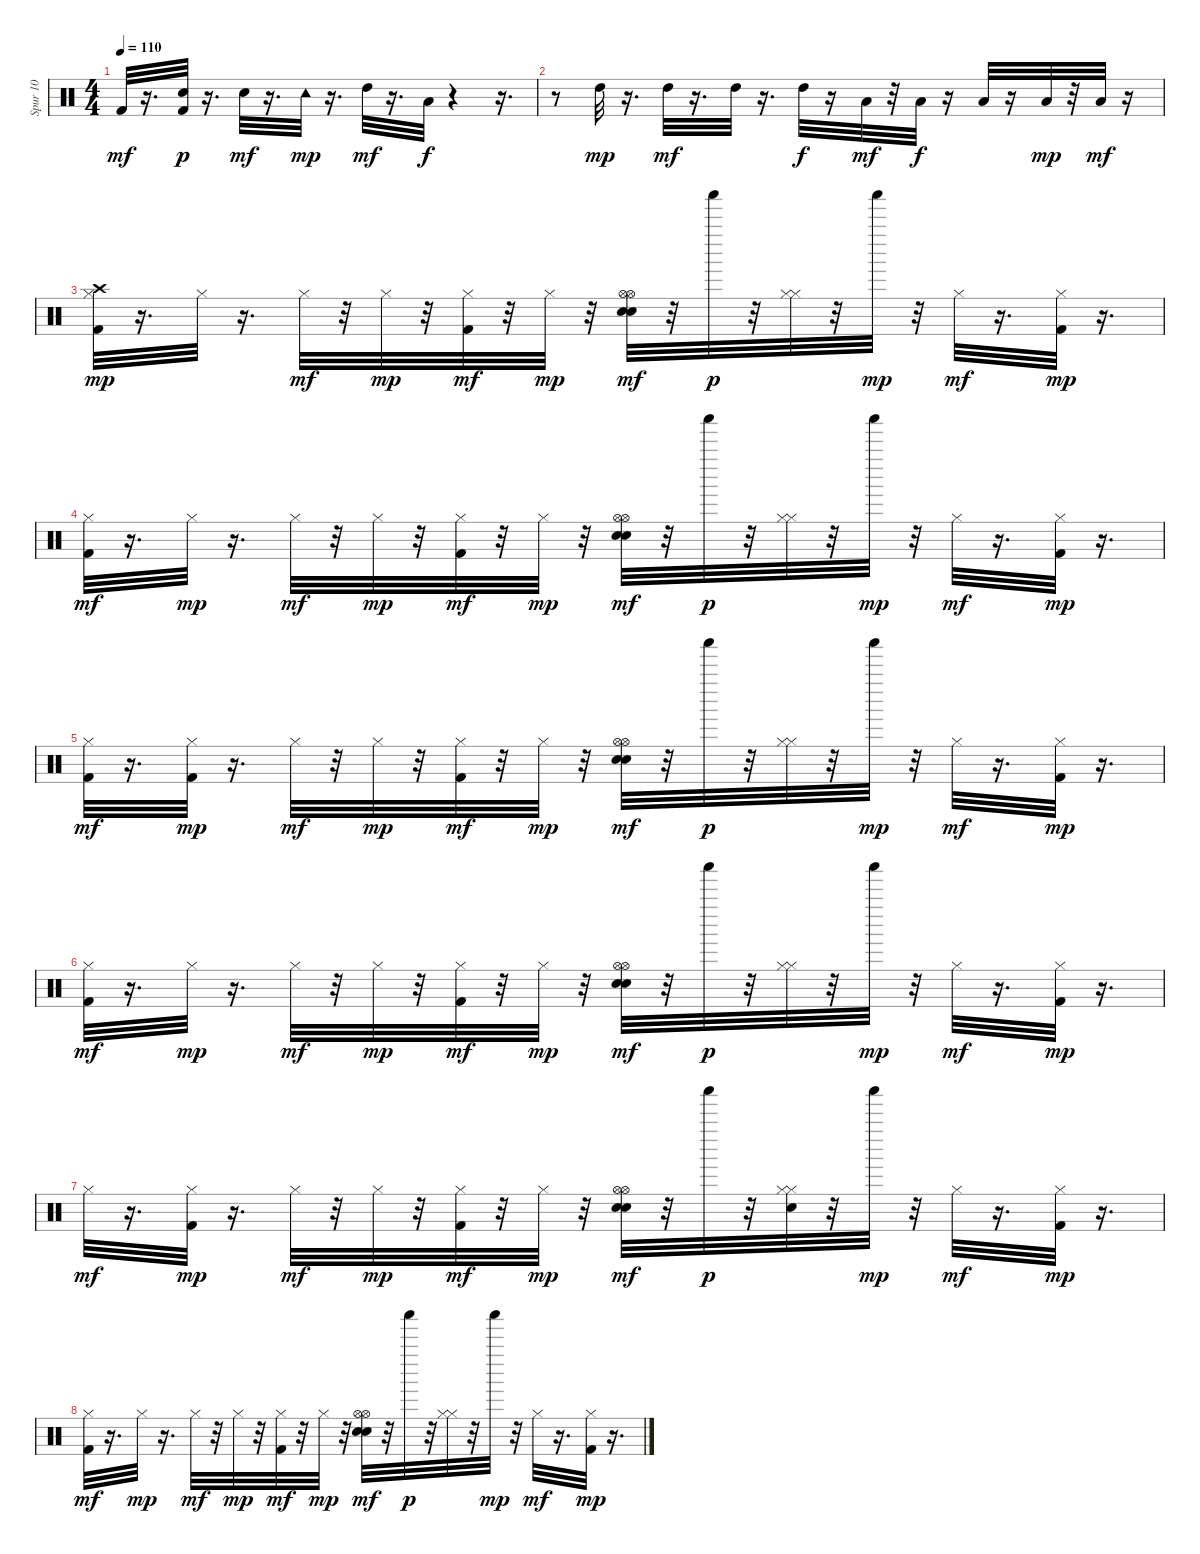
\track ("Spur 10" "Spur 10") {instrument percussion}
\staff {score}
\articulation defaults
\ts (4 4)
\tempo 110
\clef neutral
\ks c "Kick (hit) 2".32{dy mf}
r.16{d} ("Kick (hit) 2" "Snare (hit) 2").32{dy p} r.16{d} "Snare (hit) 2".32{dy mf} r.16{d} "Tambourine (hit)".32{dy mp} r.16{d} "High Tom (hit)".32{dy mf} r.16{d} "Low Tom (hit)".32{dy f} r.4 r.16{d} |
r.8 "High Tom (hit)".32{dy mp} r.16{d} "High Tom (hit)".32{dy mf} r.16{d} "High Tom (hit)".32 r.16{d} "High Tom (hit)".32{dy f} r.16 "Low Tom (hit)".32{dy mf} r.32 "Low Tom (hit)".32{dy f} r.16 "Low Tom (hit)".32 r.16 "Low Floor Tom (hit)".32{dy mp} r.32 "Low Floor Tom (hit)".32{dy mf} r.16 |
("Kick (hit) 2" "Hi-Hat (closed)" "Crash high (hit)").32{dy mp} r.16{d} "Hi-Hat (closed)".32 r.16{d} "Hi-Hat (closed)".32{dy mf} r.32 "Hi-Hat (closed)".32{dy mp} r.32 ("Kick (hit) 2" "Hi-Hat (closed)").32{dy mf} r.32 "Hi-Hat (closed)".32{dy mp} r.32 ("Hi-Hat (open)" "Snare (hit) 2" "Electric Snare (hit)" "Hi-Hat (open)").32{dy mf} r.32 "Shaker (hit)".32{dy p} r.32 ("Hi-Hat (closed)" "Hi-Hat (closed)").32 r.32 "Shaker (hit)".32{dy mp} r.32 "Hi-Hat (closed)".32{dy mf} r.16{d} ("Kick (hit) 2" "Hi-Hat (closed)").32{dy mp} r.16{d} |
("Kick (hit) 2" "Hi-Hat (closed)").32{dy mf} r.16{d} "Hi-Hat (closed)".32{dy mp} r.16{d} "Hi-Hat (closed)".32{dy mf} r.32 "Hi-Hat (closed)".32{dy mp} r.32 ("Kick (hit) 2" "Hi-Hat (closed)").32{dy mf} r.32 "Hi-Hat (closed)".32{dy mp} r.32 ("Hi-Hat (open)" "Snare (hit) 2" "Electric Snare (hit)" "Hi-Hat (open)").32{dy mf} r.32 "Shaker (hit)".32{dy p} r.32 ("Hi-Hat (closed)" "Hi-Hat (closed)").32 r.32 "Shaker (hit)".32{dy mp} r.32 "Hi-Hat (closed)".32{dy mf} r.16{d} ("Kick (hit) 2" "Hi-Hat (closed)").32{dy mp} r.16{d} |
("Kick (hit) 2" "Hi-Hat (closed)").32{dy mf} r.16{d} ("Kick (hit) 2" "Hi-Hat (closed)").32{dy mp} r.16{d} "Hi-Hat (closed)".32{dy mf} r.32 "Hi-Hat (closed)".32{dy mp} r.32 ("Kick (hit) 2" "Hi-Hat (closed)").32{dy mf} r.32 "Hi-Hat (closed)".32{dy mp} r.32 ("Hi-Hat (open)" "Snare (hit) 2" "Electric Snare (hit)" "Hi-Hat (open)").32{dy mf} r.32 "Shaker (hit)".32{dy p} r.32 ("Hi-Hat (closed)" "Hi-Hat (closed)").32 r.32 "Shaker (hit)".32{dy mp} r.32 "Hi-Hat (closed)".32{dy mf} r.16{d} ("Kick (hit) 2" "Hi-Hat (closed)").32{dy mp} r.16{d} |
("Kick (hit) 2" "Hi-Hat (closed)").32{dy mf} r.16{d} "Hi-Hat (closed)".32{dy mp} r.16{d} "Hi-Hat (closed)".32{dy mf} r.32 "Hi-Hat (closed)".32{dy mp} r.32 ("Kick (hit) 2" "Hi-Hat (closed)").32{dy mf} r.32 "Hi-Hat (closed)".32{dy mp} r.32 ("Hi-Hat (open)" "Snare (hit) 2" "Electric Snare (hit)" "Hi-Hat (open)").32{dy mf} r.32 "Shaker (hit)".32{dy p} r.32 ("Hi-Hat (closed)" "Hi-Hat (closed)").32 r.32 "Shaker (hit)".32{dy mp} r.32 "Hi-Hat (closed)".32{dy mf} r.16{d} ("Kick (hit) 2" "Hi-Hat (closed)").32{dy mp} r.16{d} |
"Hi-Hat (closed)".32{dy mf} r.16{d} ("Kick (hit) 2" "Hi-Hat (closed)").32{dy mp} r.16{d} "Hi-Hat (closed)".32{dy mf} r.32 "Hi-Hat (closed)".32{dy mp} r.32 ("Kick (hit) 2" "Hi-Hat (closed)").32{dy mf} r.32 "Hi-Hat (closed)".32{dy mp} r.32 ("Hi-Hat (open)" "Snare (hit) 2" "Electric Snare (hit)" "Hi-Hat (open)").32{dy mf} r.32 "Shaker (hit)".32{dy p} r.32 ("Snare (hit) 2" "Hi-Hat (closed)" "Hi-Hat (closed)").32 r.32 "Shaker (hit)".32{dy mp} r.32 "Hi-Hat (closed)".32{dy mf} r.16{d} ("Kick (hit) 2" "Hi-Hat (closed)").32{dy mp} r.16{d} |
("Kick (hit) 2" "Hi-Hat (closed)").32{dy mf} r.16{d} "Hi-Hat (closed)".32{dy mp} r.16{d} "Hi-Hat (closed)".32{dy mf} r.32 "Hi-Hat (closed)".32{dy mp} r.32 ("Kick (hit) 2" "Hi-Hat (closed)").32{dy mf} r.32 "Hi-Hat (closed)".32{dy mp} r.32 ("Hi-Hat (open)" "Snare (hit) 2" "Electric Snare (hit)" "Hi-Hat (open)").32{dy mf} r.32 "Shaker (hit)".32{dy p} r.32 ("Hi-Hat (closed)" "Hi-Hat (closed)").32 r.32 "Shaker (hit)".32{dy mp} r.32 "Hi-Hat (closed)".32{dy mf} r.16{d} ("Kick (hit) 2" "Hi-Hat (closed)").32{dy mp} r.16{d}
